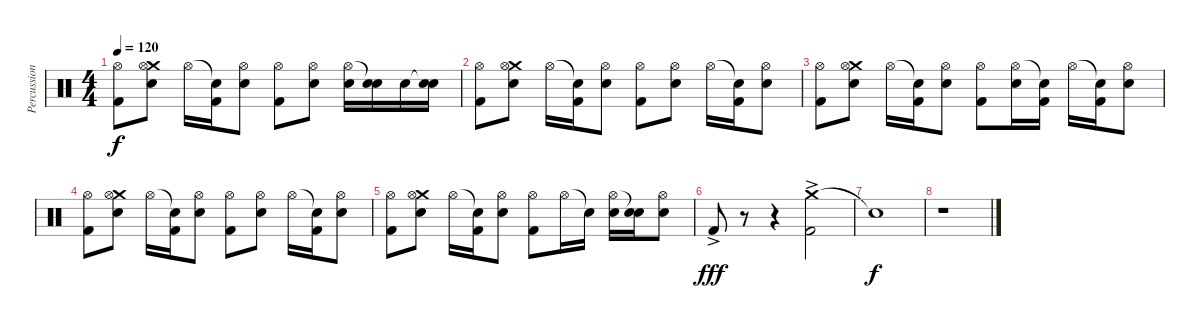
\track ("Percussion" "Percussion") {instrument percussion}
\staff {score}
\articulation defaults
\ts (4 4)
\tempo 120
\clef neutral
\ks c
("Hi-Hat (open)" "Kick (hit) 2").8{dy f} ("Crash medium (hit)" "Hi-Hat (open)" "Electric Snare (hit)").8 "Hi-Hat (open)".16 ("Snare (hit)"{t} "Kick (hit) 2").16 ("Hi-Hat (open)" "Electric Snare (hit)").8 ("Hi-Hat (open)" "Kick (hit) 2").8 ("Hi-Hat (open)" "Electric Snare (hit)").8 ("Hi-Hat (open)" "Electric Snare (hit)").16 ("Snare (hit)"{t} "Electric Snare (hit)").16 "Electric Snare (hit)".16 ("Snare (hit)"{t} "Electric Snare (hit)").16 |
("Hi-Hat (open)" "Kick (hit) 2").8 ("Crash medium (hit)" "Hi-Hat (open)" "Electric Snare (hit)").8 "Hi-Hat (open)".16 ("Snare (hit)"{t} "Kick (hit) 2").16 ("Hi-Hat (open)" "Electric Snare (hit)").8 ("Hi-Hat (open)" "Kick (hit) 2").8 ("Hi-Hat (open)" "Electric Snare (hit)").8 "Hi-Hat (open)".16 ("Snare (hit)"{t} "Kick (hit) 2").16 ("Hi-Hat (open)" "Electric Snare (hit)").8 |
("Hi-Hat (open)" "Kick (hit) 2").8 ("Crash medium (hit)" "Hi-Hat (open)" "Electric Snare (hit)").8 "Hi-Hat (open)".16 ("Snare (hit)"{t} "Kick (hit) 2").16 ("Hi-Hat (open)" "Electric Snare (hit)").8 ("Hi-Hat (open)" "Kick (hit) 2").8 ("Hi-Hat (open)" "Electric Snare (hit)").16 ("Snare (hit)"{t} "Kick (hit) 2").16 "Hi-Hat (open)".16 ("Snare (hit)"{t} "Kick (hit) 2").16 ("Hi-Hat (open)" "Electric Snare (hit)").8 |
("Hi-Hat (open)" "Kick (hit) 2").8 ("Crash medium (hit)" "Hi-Hat (open)" "Electric Snare (hit)").8 "Hi-Hat (open)".16 ("Snare (hit)"{t} "Kick (hit) 2").16 ("Hi-Hat (open)" "Electric Snare (hit)").8 ("Hi-Hat (open)" "Kick (hit) 2").8 ("Hi-Hat (open)" "Electric Snare (hit)").8 "Hi-Hat (open)".16 ("Snare (hit)"{t} "Kick (hit) 2").16 ("Hi-Hat (open)" "Electric Snare (hit)").8 |
("Hi-Hat (open)" "Kick (hit) 2").8 ("Crash medium (hit)" "Hi-Hat (open)" "Electric Snare (hit)").8 "Hi-Hat (open)".16 ("Snare (hit)"{t} "Kick (hit) 2").16 ("Hi-Hat (open)" "Electric Snare (hit)").8 ("Hi-Hat (open)" "Kick (hit) 2").8 "Hi-Hat (open)".16 "Snare (hit)"{t}.16 ("Hi-Hat (open)" "Electric Snare (hit)").16 ("Snare (hit)"{t} "Electric Snare (hit)").16 ("Hi-Hat (open)" "Electric Snare (hit)").8 |
"Kick (hit) 2"{ac}.8{dy fff} r.8 r.4 ("Crash medium (hit)"{ac} "Kick (hit) 2"{ac}).2 |
"Snare (hit)"{t}.1{dy f} |
r.1
